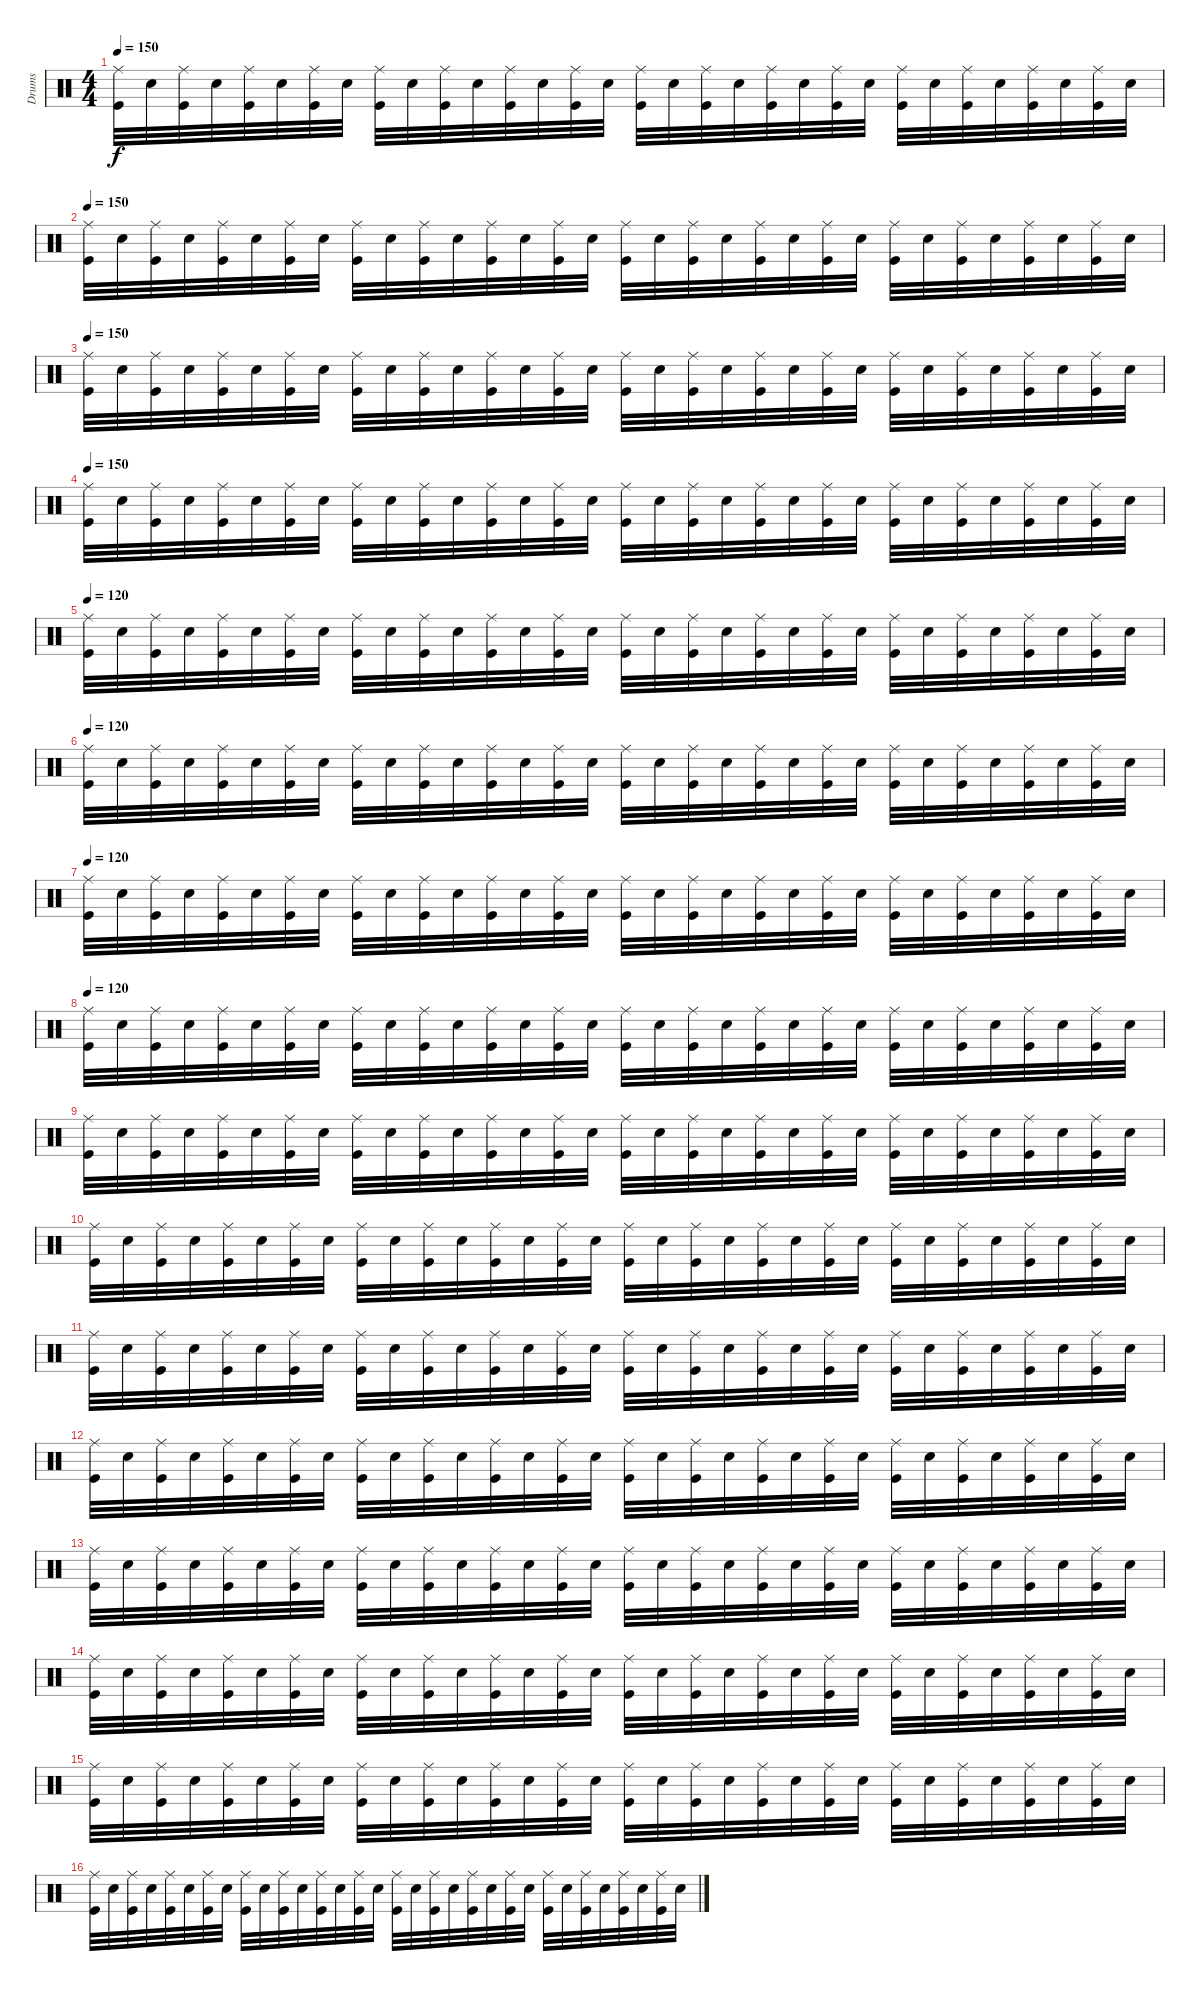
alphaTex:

\track ("Drums" "Drums") {instrument percussion}
\staff {score}
\articulation defaults
\ts (4 4)
\tempo 150
\clef neutral
\ks c
("Ride (middle)" "Kick (hit)").32{dy f} "Electric Snare (hit)".32 ("Ride (middle)" "Kick (hit)").32 "Electric Snare (hit)".32 ("Ride (middle)" "Kick (hit)").32 "Electric Snare (hit)".32 ("Ride (middle)" "Kick (hit)").32 "Electric Snare (hit)".32 ("Ride (middle)" "Kick (hit)").32 "Electric Snare (hit)".32 ("Ride (middle)" "Kick (hit)").32 "Electric Snare (hit)".32 ("Ride (middle)" "Kick (hit)").32 "Electric Snare (hit)".32 ("Ride (middle)" "Kick (hit)").32 "Electric Snare (hit)".32 ("Ride (middle)" "Kick (hit)").32 "Electric Snare (hit)".32 ("Ride (middle)" "Kick (hit)").32 "Electric Snare (hit)".32 ("Ride (middle)" "Kick (hit)").32 "Electric Snare (hit)".32 ("Ride (middle)" "Kick (hit)").32 "Electric Snare (hit)".32 ("Ride (middle)" "Kick (hit)").32 "Electric Snare (hit)".32 ("Ride (middle)" "Kick (hit)").32 "Electric Snare (hit)".32 ("Ride (middle)" "Kick (hit)").32 "Electric Snare (hit)".32 ("Ride (middle)" "Kick (hit)").32 "Electric Snare (hit)".32 |
\tempo 150
("Ride (middle)" "Kick (hit)").32 "Electric Snare (hit)".32 ("Ride (middle)" "Kick (hit)").32 "Electric Snare (hit)".32 ("Ride (middle)" "Kick (hit)").32 "Electric Snare (hit)".32 ("Ride (middle)" "Kick (hit)").32 "Electric Snare (hit)".32 ("Ride (middle)" "Kick (hit)").32 "Electric Snare (hit)".32 ("Ride (middle)" "Kick (hit)").32 "Electric Snare (hit)".32 ("Ride (middle)" "Kick (hit)").32 "Electric Snare (hit)".32 ("Ride (middle)" "Kick (hit)").32 "Electric Snare (hit)".32 ("Ride (middle)" "Kick (hit)").32 "Electric Snare (hit)".32 ("Ride (middle)" "Kick (hit)").32 "Electric Snare (hit)".32 ("Ride (middle)" "Kick (hit)").32 "Electric Snare (hit)".32 ("Ride (middle)" "Kick (hit)").32 "Electric Snare (hit)".32 ("Ride (middle)" "Kick (hit)").32 "Electric Snare (hit)".32 ("Ride (middle)" "Kick (hit)").32 "Electric Snare (hit)".32 ("Ride (middle)" "Kick (hit)").32 "Electric Snare (hit)".32 ("Ride (middle)" "Kick (hit)").32 "Electric Snare (hit)".32 |
\tempo 150
("Ride (middle)" "Kick (hit)").32 "Electric Snare (hit)".32 ("Ride (middle)" "Kick (hit)").32 "Electric Snare (hit)".32 ("Ride (middle)" "Kick (hit)").32 "Electric Snare (hit)".32 ("Ride (middle)" "Kick (hit)").32 "Electric Snare (hit)".32 ("Ride (middle)" "Kick (hit)").32 "Electric Snare (hit)".32 ("Ride (middle)" "Kick (hit)").32 "Electric Snare (hit)".32 ("Ride (middle)" "Kick (hit)").32 "Electric Snare (hit)".32 ("Ride (middle)" "Kick (hit)").32 "Electric Snare (hit)".32 ("Ride (middle)" "Kick (hit)").32 "Electric Snare (hit)".32 ("Ride (middle)" "Kick (hit)").32 "Electric Snare (hit)".32 ("Ride (middle)" "Kick (hit)").32 "Electric Snare (hit)".32 ("Ride (middle)" "Kick (hit)").32 "Electric Snare (hit)".32 ("Ride (middle)" "Kick (hit)").32 "Electric Snare (hit)".32 ("Ride (middle)" "Kick (hit)").32 "Electric Snare (hit)".32 ("Ride (middle)" "Kick (hit)").32 "Electric Snare (hit)".32 ("Ride (middle)" "Kick (hit)").32 "Electric Snare (hit)".32 |
\tempo 150
("Ride (middle)" "Kick (hit)").32 "Electric Snare (hit)".32 ("Ride (middle)" "Kick (hit)").32 "Electric Snare (hit)".32 ("Ride (middle)" "Kick (hit)").32 "Electric Snare (hit)".32 ("Ride (middle)" "Kick (hit)").32 "Electric Snare (hit)".32 ("Ride (middle)" "Kick (hit)").32 "Electric Snare (hit)".32 ("Ride (middle)" "Kick (hit)").32 "Electric Snare (hit)".32 ("Ride (middle)" "Kick (hit)").32 "Electric Snare (hit)".32 ("Ride (middle)" "Kick (hit)").32 "Electric Snare (hit)".32 ("Ride (middle)" "Kick (hit)").32 "Electric Snare (hit)".32 ("Ride (middle)" "Kick (hit)").32 "Electric Snare (hit)".32 ("Ride (middle)" "Kick (hit)").32 "Electric Snare (hit)".32 ("Ride (middle)" "Kick (hit)").32 "Electric Snare (hit)".32 ("Ride (middle)" "Kick (hit)").32 "Electric Snare (hit)".32 ("Ride (middle)" "Kick (hit)").32 "Electric Snare (hit)".32 ("Ride (middle)" "Kick (hit)").32 "Electric Snare (hit)".32 ("Ride (middle)" "Kick (hit)").32 "Electric Snare (hit)".32 |
\tempo 150
\tempo 120
("Ride (middle)" "Kick (hit)").32 "Electric Snare (hit)".32 ("Ride (middle)" "Kick (hit)").32 "Electric Snare (hit)".32 ("Ride (middle)" "Kick (hit)").32 "Electric Snare (hit)".32 ("Ride (middle)" "Kick (hit)").32 "Electric Snare (hit)".32 ("Ride (middle)" "Kick (hit)").32 "Electric Snare (hit)".32 ("Ride (middle)" "Kick (hit)").32 "Electric Snare (hit)".32 ("Ride (middle)" "Kick (hit)").32 "Electric Snare (hit)".32 ("Ride (middle)" "Kick (hit)").32 "Electric Snare (hit)".32 ("Ride (middle)" "Kick (hit)").32 "Electric Snare (hit)".32 ("Ride (middle)" "Kick (hit)").32 "Electric Snare (hit)".32 ("Ride (middle)" "Kick (hit)").32 "Electric Snare (hit)".32 ("Ride (middle)" "Kick (hit)").32 "Electric Snare (hit)".32 ("Ride (middle)" "Kick (hit)").32 "Electric Snare (hit)".32 ("Ride (middle)" "Kick (hit)").32 "Electric Snare (hit)".32 ("Ride (middle)" "Kick (hit)").32 "Electric Snare (hit)".32 ("Ride (middle)" "Kick (hit)").32 "Electric Snare (hit)".32 |
\tempo 120
("Ride (middle)" "Kick (hit)").32 "Electric Snare (hit)".32 ("Ride (middle)" "Kick (hit)").32 "Electric Snare (hit)".32 ("Ride (middle)" "Kick (hit)").32 "Electric Snare (hit)".32 ("Ride (middle)" "Kick (hit)").32 "Electric Snare (hit)".32 ("Ride (middle)" "Kick (hit)").32 "Electric Snare (hit)".32 ("Ride (middle)" "Kick (hit)").32 "Electric Snare (hit)".32 ("Ride (middle)" "Kick (hit)").32 "Electric Snare (hit)".32 ("Ride (middle)" "Kick (hit)").32 "Electric Snare (hit)".32 ("Ride (middle)" "Kick (hit)").32 "Electric Snare (hit)".32 ("Ride (middle)" "Kick (hit)").32 "Electric Snare (hit)".32 ("Ride (middle)" "Kick (hit)").32 "Electric Snare (hit)".32 ("Ride (middle)" "Kick (hit)").32 "Electric Snare (hit)".32 ("Ride (middle)" "Kick (hit)").32 "Electric Snare (hit)".32 ("Ride (middle)" "Kick (hit)").32 "Electric Snare (hit)".32 ("Ride (middle)" "Kick (hit)").32 "Electric Snare (hit)".32 ("Ride (middle)" "Kick (hit)").32 "Electric Snare (hit)".32 |
\tempo 120
("Ride (middle)" "Kick (hit)").32 "Electric Snare (hit)".32 ("Ride (middle)" "Kick (hit)").32 "Electric Snare (hit)".32 ("Ride (middle)" "Kick (hit)").32 "Electric Snare (hit)".32 ("Ride (middle)" "Kick (hit)").32 "Electric Snare (hit)".32 ("Ride (middle)" "Kick (hit)").32 "Electric Snare (hit)".32 ("Ride (middle)" "Kick (hit)").32 "Electric Snare (hit)".32 ("Ride (middle)" "Kick (hit)").32 "Electric Snare (hit)".32 ("Ride (middle)" "Kick (hit)").32 "Electric Snare (hit)".32 ("Ride (middle)" "Kick (hit)").32 "Electric Snare (hit)".32 ("Ride (middle)" "Kick (hit)").32 "Electric Snare (hit)".32 ("Ride (middle)" "Kick (hit)").32 "Electric Snare (hit)".32 ("Ride (middle)" "Kick (hit)").32 "Electric Snare (hit)".32 ("Ride (middle)" "Kick (hit)").32 "Electric Snare (hit)".32 ("Ride (middle)" "Kick (hit)").32 "Electric Snare (hit)".32 ("Ride (middle)" "Kick (hit)").32 "Electric Snare (hit)".32 ("Ride (middle)" "Kick (hit)").32 "Electric Snare (hit)".32 |
\tempo 120
("Ride (middle)" "Kick (hit)").32 "Electric Snare (hit)".32 ("Ride (middle)" "Kick (hit)").32 "Electric Snare (hit)".32 ("Ride (middle)" "Kick (hit)").32 "Electric Snare (hit)".32 ("Ride (middle)" "Kick (hit)").32 "Electric Snare (hit)".32 ("Ride (middle)" "Kick (hit)").32 "Electric Snare (hit)".32 ("Ride (middle)" "Kick (hit)").32 "Electric Snare (hit)".32 ("Ride (middle)" "Kick (hit)").32 "Electric Snare (hit)".32 ("Ride (middle)" "Kick (hit)").32 "Electric Snare (hit)".32 ("Ride (middle)" "Kick (hit)").32 "Electric Snare (hit)".32 ("Ride (middle)" "Kick (hit)").32 "Electric Snare (hit)".32 ("Ride (middle)" "Kick (hit)").32 "Electric Snare (hit)".32 ("Ride (middle)" "Kick (hit)").32 "Electric Snare (hit)".32 ("Ride (middle)" "Kick (hit)").32 "Electric Snare (hit)".32 ("Ride (middle)" "Kick (hit)").32 "Electric Snare (hit)".32 ("Ride (middle)" "Kick (hit)").32 "Electric Snare (hit)".32 ("Ride (middle)" "Kick (hit)").32 "Electric Snare (hit)".32 |
("Ride (middle)" "Kick (hit)").32 "Electric Snare (hit)".32 ("Ride (middle)" "Kick (hit)").32 "Electric Snare (hit)".32 ("Ride (middle)" "Kick (hit)").32 "Electric Snare (hit)".32 ("Ride (middle)" "Kick (hit)").32 "Electric Snare (hit)".32 ("Ride (middle)" "Kick (hit)").32 "Electric Snare (hit)".32 ("Ride (middle)" "Kick (hit)").32 "Electric Snare (hit)".32 ("Ride (middle)" "Kick (hit)").32 "Electric Snare (hit)".32 ("Ride (middle)" "Kick (hit)").32 "Electric Snare (hit)".32 ("Ride (middle)" "Kick (hit)").32 "Electric Snare (hit)".32 ("Ride (middle)" "Kick (hit)").32 "Electric Snare (hit)".32 ("Ride (middle)" "Kick (hit)").32 "Electric Snare (hit)".32 ("Ride (middle)" "Kick (hit)").32 "Electric Snare (hit)".32 ("Ride (middle)" "Kick (hit)").32 "Electric Snare (hit)".32 ("Ride (middle)" "Kick (hit)").32 "Electric Snare (hit)".32 ("Ride (middle)" "Kick (hit)").32 "Electric Snare (hit)".32 ("Ride (middle)" "Kick (hit)").32 "Electric Snare (hit)".32 |
("Ride (middle)" "Kick (hit)").32 "Electric Snare (hit)".32 ("Ride (middle)" "Kick (hit)").32 "Electric Snare (hit)".32 ("Ride (middle)" "Kick (hit)").32 "Electric Snare (hit)".32 ("Ride (middle)" "Kick (hit)").32 "Electric Snare (hit)".32 ("Ride (middle)" "Kick (hit)").32 "Electric Snare (hit)".32 ("Ride (middle)" "Kick (hit)").32 "Electric Snare (hit)".32 ("Ride (middle)" "Kick (hit)").32 "Electric Snare (hit)".32 ("Ride (middle)" "Kick (hit)").32 "Electric Snare (hit)".32 ("Ride (middle)" "Kick (hit)").32 "Electric Snare (hit)".32 ("Ride (middle)" "Kick (hit)").32 "Electric Snare (hit)".32 ("Ride (middle)" "Kick (hit)").32 "Electric Snare (hit)".32 ("Ride (middle)" "Kick (hit)").32 "Electric Snare (hit)".32 ("Ride (middle)" "Kick (hit)").32 "Electric Snare (hit)".32 ("Ride (middle)" "Kick (hit)").32 "Electric Snare (hit)".32 ("Ride (middle)" "Kick (hit)").32 "Electric Snare (hit)".32 ("Ride (middle)" "Kick (hit)").32 "Electric Snare (hit)".32 |
("Ride (middle)" "Kick (hit)").32 "Electric Snare (hit)".32 ("Ride (middle)" "Kick (hit)").32 "Electric Snare (hit)".32 ("Ride (middle)" "Kick (hit)").32 "Electric Snare (hit)".32 ("Ride (middle)" "Kick (hit)").32 "Electric Snare (hit)".32 ("Ride (middle)" "Kick (hit)").32 "Electric Snare (hit)".32 ("Ride (middle)" "Kick (hit)").32 "Electric Snare (hit)".32 ("Ride (middle)" "Kick (hit)").32 "Electric Snare (hit)".32 ("Ride (middle)" "Kick (hit)").32 "Electric Snare (hit)".32 ("Ride (middle)" "Kick (hit)").32 "Electric Snare (hit)".32 ("Ride (middle)" "Kick (hit)").32 "Electric Snare (hit)".32 ("Ride (middle)" "Kick (hit)").32 "Electric Snare (hit)".32 ("Ride (middle)" "Kick (hit)").32 "Electric Snare (hit)".32 ("Ride (middle)" "Kick (hit)").32 "Electric Snare (hit)".32 ("Ride (middle)" "Kick (hit)").32 "Electric Snare (hit)".32 ("Ride (middle)" "Kick (hit)").32 "Electric Snare (hit)".32 ("Ride (middle)" "Kick (hit)").32 "Electric Snare (hit)".32 |
("Ride (middle)" "Kick (hit)").32 "Electric Snare (hit)".32 ("Ride (middle)" "Kick (hit)").32 "Electric Snare (hit)".32 ("Ride (middle)" "Kick (hit)").32 "Electric Snare (hit)".32 ("Ride (middle)" "Kick (hit)").32 "Electric Snare (hit)".32 ("Ride (middle)" "Kick (hit)").32 "Electric Snare (hit)".32 ("Ride (middle)" "Kick (hit)").32 "Electric Snare (hit)".32 ("Ride (middle)" "Kick (hit)").32 "Electric Snare (hit)".32 ("Ride (middle)" "Kick (hit)").32 "Electric Snare (hit)".32 ("Ride (middle)" "Kick (hit)").32 "Electric Snare (hit)".32 ("Ride (middle)" "Kick (hit)").32 "Electric Snare (hit)".32 ("Ride (middle)" "Kick (hit)").32 "Electric Snare (hit)".32 ("Ride (middle)" "Kick (hit)").32 "Electric Snare (hit)".32 ("Ride (middle)" "Kick (hit)").32 "Electric Snare (hit)".32 ("Ride (middle)" "Kick (hit)").32 "Electric Snare (hit)".32 ("Ride (middle)" "Kick (hit)").32 "Electric Snare (hit)".32 ("Ride (middle)" "Kick (hit)").32 "Electric Snare (hit)".32 |
("Ride (middle)" "Kick (hit)").32 "Electric Snare (hit)".32 ("Ride (middle)" "Kick (hit)").32 "Electric Snare (hit)".32 ("Ride (middle)" "Kick (hit)").32 "Electric Snare (hit)".32 ("Ride (middle)" "Kick (hit)").32 "Electric Snare (hit)".32 ("Ride (middle)" "Kick (hit)").32 "Electric Snare (hit)".32 ("Ride (middle)" "Kick (hit)").32 "Electric Snare (hit)".32 ("Ride (middle)" "Kick (hit)").32 "Electric Snare (hit)".32 ("Ride (middle)" "Kick (hit)").32 "Electric Snare (hit)".32 ("Ride (middle)" "Kick (hit)").32 "Electric Snare (hit)".32 ("Ride (middle)" "Kick (hit)").32 "Electric Snare (hit)".32 ("Ride (middle)" "Kick (hit)").32 "Electric Snare (hit)".32 ("Ride (middle)" "Kick (hit)").32 "Electric Snare (hit)".32 ("Ride (middle)" "Kick (hit)").32 "Electric Snare (hit)".32 ("Ride (middle)" "Kick (hit)").32 "Electric Snare (hit)".32 ("Ride (middle)" "Kick (hit)").32 "Electric Snare (hit)".32 ("Ride (middle)" "Kick (hit)").32 "Electric Snare (hit)".32 |
("Ride (middle)" "Kick (hit)").32 "Electric Snare (hit)".32 ("Ride (middle)" "Kick (hit)").32 "Electric Snare (hit)".32 ("Ride (middle)" "Kick (hit)").32 "Electric Snare (hit)".32 ("Ride (middle)" "Kick (hit)").32 "Electric Snare (hit)".32 ("Ride (middle)" "Kick (hit)").32 "Electric Snare (hit)".32 ("Ride (middle)" "Kick (hit)").32 "Electric Snare (hit)".32 ("Ride (middle)" "Kick (hit)").32 "Electric Snare (hit)".32 ("Ride (middle)" "Kick (hit)").32 "Electric Snare (hit)".32 ("Ride (middle)" "Kick (hit)").32 "Electric Snare (hit)".32 ("Ride (middle)" "Kick (hit)").32 "Electric Snare (hit)".32 ("Ride (middle)" "Kick (hit)").32 "Electric Snare (hit)".32 ("Ride (middle)" "Kick (hit)").32 "Electric Snare (hit)".32 ("Ride (middle)" "Kick (hit)").32 "Electric Snare (hit)".32 ("Ride (middle)" "Kick (hit)").32 "Electric Snare (hit)".32 ("Ride (middle)" "Kick (hit)").32 "Electric Snare (hit)".32 ("Ride (middle)" "Kick (hit)").32 "Electric Snare (hit)".32 |
("Ride (middle)" "Kick (hit)").32 "Electric Snare (hit)".32 ("Ride (middle)" "Kick (hit)").32 "Electric Snare (hit)".32 ("Ride (middle)" "Kick (hit)").32 "Electric Snare (hit)".32 ("Ride (middle)" "Kick (hit)").32 "Electric Snare (hit)".32 ("Ride (middle)" "Kick (hit)").32 "Electric Snare (hit)".32 ("Ride (middle)" "Kick (hit)").32 "Electric Snare (hit)".32 ("Ride (middle)" "Kick (hit)").32 "Electric Snare (hit)".32 ("Ride (middle)" "Kick (hit)").32 "Electric Snare (hit)".32 ("Ride (middle)" "Kick (hit)").32 "Electric Snare (hit)".32 ("Ride (middle)" "Kick (hit)").32 "Electric Snare (hit)".32 ("Ride (middle)" "Kick (hit)").32 "Electric Snare (hit)".32 ("Ride (middle)" "Kick (hit)").32 "Electric Snare (hit)".32 ("Ride (middle)" "Kick (hit)").32 "Electric Snare (hit)".32 ("Ride (middle)" "Kick (hit)").32 "Electric Snare (hit)".32 ("Ride (middle)" "Kick (hit)").32 "Electric Snare (hit)".32 ("Ride (middle)" "Kick (hit)").32 "Electric Snare (hit)".32 |
("Ride (middle)" "Kick (hit)").32 "Electric Snare (hit)".32 ("Ride (middle)" "Kick (hit)").32 "Electric Snare (hit)".32 ("Ride (middle)" "Kick (hit)").32 "Electric Snare (hit)".32 ("Ride (middle)" "Kick (hit)").32 "Electric Snare (hit)".32 ("Ride (middle)" "Kick (hit)").32 "Electric Snare (hit)".32 ("Ride (middle)" "Kick (hit)").32 "Electric Snare (hit)".32 ("Ride (middle)" "Kick (hit)").32 "Electric Snare (hit)".32 ("Ride (middle)" "Kick (hit)").32 "Electric Snare (hit)".32 ("Ride (middle)" "Kick (hit)").32 "Electric Snare (hit)".32 ("Ride (middle)" "Kick (hit)").32 "Electric Snare (hit)".32 ("Ride (middle)" "Kick (hit)").32 "Electric Snare (hit)".32 ("Ride (middle)" "Kick (hit)").32 "Electric Snare (hit)".32 ("Ride (middle)" "Kick (hit)").32 "Electric Snare (hit)".32 ("Ride (middle)" "Kick (hit)").32 "Electric Snare (hit)".32 ("Ride (middle)" "Kick (hit)").32 "Electric Snare (hit)".32 ("Ride (middle)" "Kick (hit)").32 "Electric Snare (hit)".32
